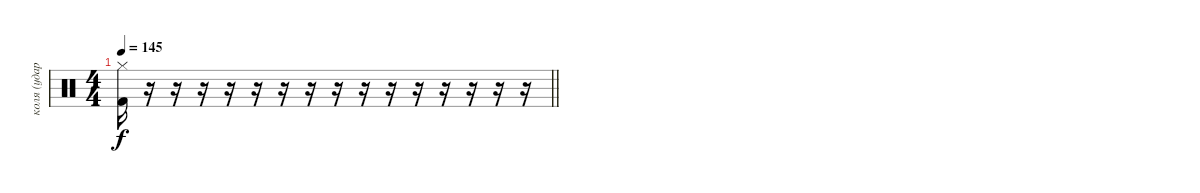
\track ("коля (ударные)" "коля (удар") {instrument percussion}
\staff {score}
\articulation defaults
\ts (4 4)
\tempo 145
\clef neutral
\barLineRight lightlight
\ks c
("Kick (hit) 2" "Hi-Hat (closed)").16{dy f} r.16 r.16 r.16 r.16 r.16 r.16 r.16 r.16 r.16 r.16 r.16 r.16 r.16 r.16 r.16
